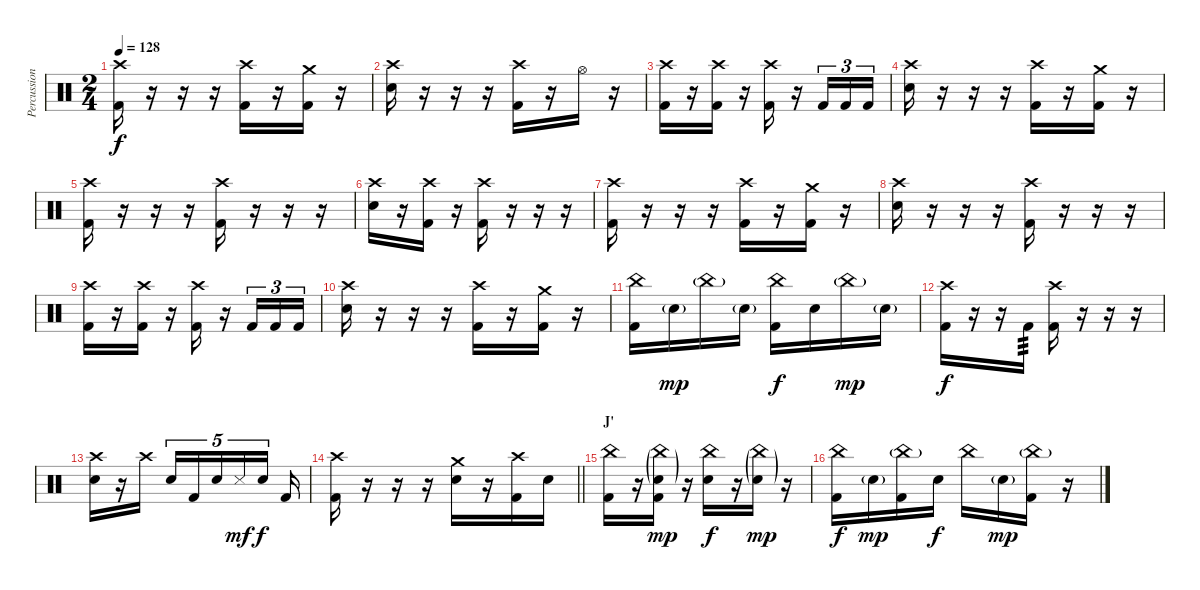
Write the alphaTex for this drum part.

\track ("Percussion" "Percussion") {instrument percussion}
\staff {score}
\articulation defaults
\ts (2 4)
\tempo 128
\clef neutral
\ks c
("Crash high (hit)" "Kick (hit) 2").16{dy f} r.16 r.16 r.16 ("Crash high (hit)" "Kick (hit) 2").16 r.16 ("Crash medium (hit)" "Kick (hit) 2").16 r.16 |
("Crash high (hit)" "Snare (hit) 2").16 r.16 r.16 r.16 ("Crash high (hit)" "Kick (hit) 2").16 r.16 "Hi-Hat (open)".16 r.16 |
("Crash high (hit)" "Kick (hit) 2").16 r.16 ("Crash high (hit)" "Kick (hit) 2").16 r.16 ("Crash high (hit)" "Kick (hit) 2").16 r.16 "Kick (hit) 2".16{tu (3 2)} "Kick (hit) 2".16{tu (3 2)} "Kick (hit) 2".16{tu (3 2)} |
("Crash high (hit)" "Snare (hit) 2").16 r.16 r.16 r.16 ("Crash high (hit)" "Kick (hit) 2").16 r.16 ("Crash medium (hit)" "Kick (hit) 2").16 r.16 |
("Crash high (hit)" "Kick (hit) 2").16 r.16 r.16 r.16 ("Crash high (hit)" "Kick (hit) 2").16 r.16 r.16 r.16 |
("Crash high (hit)" "Snare (hit) 2").16 r.16 ("Crash high (hit)" "Kick (hit) 2").16 r.16 ("Crash high (hit)" "Kick (hit) 2").16 r.16 r.16 r.16 |
("Crash high (hit)" "Kick (hit) 2").16 r.16 r.16 r.16 ("Crash high (hit)" "Kick (hit) 2").16 r.16 ("Crash medium (hit)" "Kick (hit) 2").16 r.16 |
("Crash high (hit)" "Snare (hit) 2").16 r.16 r.16 r.16 ("Crash high (hit)" "Kick (hit) 2").16 r.16 r.16 r.16 |
("Crash high (hit)" "Kick (hit) 2").16 r.16 ("Crash high (hit)" "Kick (hit) 2").16 r.16 ("Crash high (hit)" "Kick (hit) 2").16 r.16 "Kick (hit) 2".16{tu (3 2)} "Kick (hit) 2".16{tu (3 2)} "Kick (hit) 2".16{tu (3 2)} |
("Crash high (hit)" "Snare (hit) 2").16 r.16 r.16 r.16 ("Crash high (hit)" "Kick (hit) 2").16 r.16 ("Crash medium (hit)" "Kick (hit) 2").16 r.16 |
("China (hit)" "Kick (hit) 2").16 "Snare (hit) 2"{g}.16{dy mp} "China (hit)"{g}.16 "Snare (hit) 2"{g}.16 ("China (hit)" "Kick (hit) 2").16{dy f} "Snare (hit) 2".16 "China (hit)"{g}.16{dy mp} "Snare (hit) 2"{g}.16 |
("Crash high (hit)" "Kick (hit) 2").16{dy f} r.16 r.16 "Kick (hit) 2".16{tp 3} ("Crash high (hit)" "Kick (hit) 2").16 r.16 r.16 r.16 |
("Crash high (hit)" "Snare (hit) 2").16 r.16 "Crash high (hit)".16{beam splitsecondary} "Snare (hit) 2".16{tu (5 4)} "Kick (hit) 2".16{tu (5 4)} "Snare (hit) 2".16{tu (5 4)} "Metronome (hit)".16{tu (5 4) dy mf} "Snare (hit) 2".16{tu (5 4) dy f beam splitsecondary} "Kick (hit) 2".16 |
\barLineRight lightlight
("Crash high (hit)" "Kick (hit) 2").16 r.16 r.16 r.16 ("Crash medium (hit)" "Snare (hit) 2").16 r.16 ("Crash high (hit)" "Kick (hit) 2").16 "Snare (hit) 2".16 |
\section ("" "J'")
("China (hit)" "Kick (hit) 2").16 r.16 ("China (hit)"{g} "Snare (hit) 2"{g} "Kick (hit) 2").16{dy mp} r.16 ("China (hit)" "Snare (hit) 2").16{dy f} r.16 ("China (hit)"{g} "Snare (hit) 2"{g}).16{dy mp} r.16 |
("China (hit)" "Kick (hit) 2").16{dy f} "Snare (hit) 2"{g}.16{dy mp} ("China (hit)"{g} "Kick (hit) 2").16 "Snare (hit) 2".16{dy f} "China (hit)".16 "Snare (hit) 2"{g}.16{dy mp} ("China (hit)"{g} "Kick (hit) 2").16 r.16
